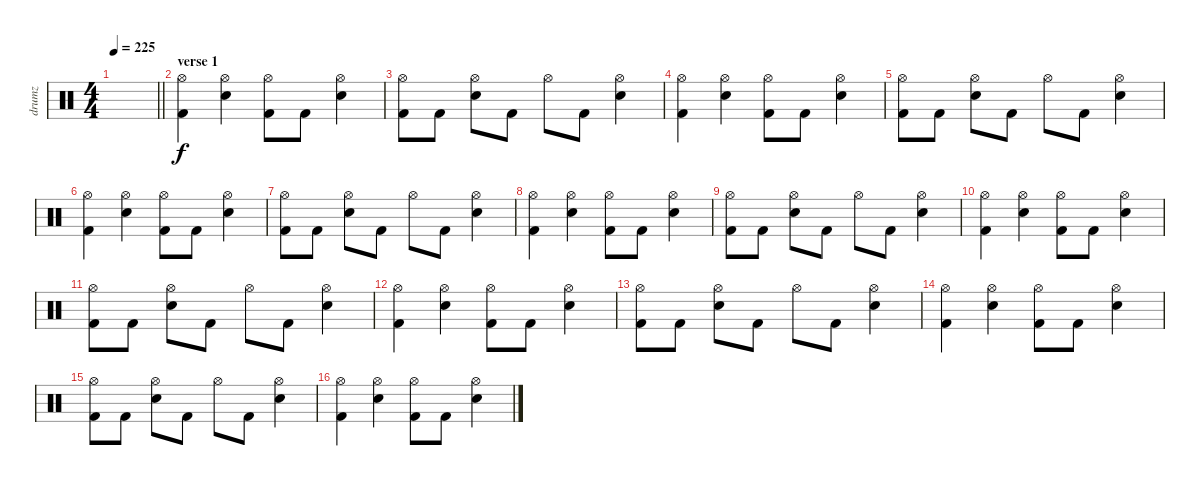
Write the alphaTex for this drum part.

\track ("drumz" "drumz") {instrument percussion}
\staff {score}
\articulation defaults
\ts (4 4)
\tempo 225
\clef neutral
\barLineRight lightlight
\ks c
|
\section ("" "verse 1")
("Hi-Hat (open)" "Kick (hit) 2").4 ("Hi-Hat (open)" "Electric Snare (hit)").4 ("Hi-Hat (open)" "Kick (hit) 2").8 "Kick (hit) 2".8 ("Hi-Hat (open)" "Electric Snare (hit)").4 |
("Hi-Hat (open)" "Kick (hit) 2").8 "Kick (hit) 2".8 ("Hi-Hat (open)" "Electric Snare (hit)").8 "Kick (hit) 2".8 "Hi-Hat (open)".8 "Kick (hit) 2".8 ("Hi-Hat (open)" "Electric Snare (hit)").4 |
("Hi-Hat (open)" "Kick (hit) 2").4 ("Hi-Hat (open)" "Electric Snare (hit)").4 ("Hi-Hat (open)" "Kick (hit) 2").8 "Kick (hit) 2".8 ("Hi-Hat (open)" "Electric Snare (hit)").4 |
("Hi-Hat (open)" "Kick (hit) 2").8 "Kick (hit) 2".8 ("Hi-Hat (open)" "Electric Snare (hit)").8 "Kick (hit) 2".8 "Hi-Hat (open)".8 "Kick (hit) 2".8 ("Hi-Hat (open)" "Electric Snare (hit)").4 |
("Hi-Hat (open)" "Kick (hit) 2").4 ("Hi-Hat (open)" "Electric Snare (hit)").4 ("Hi-Hat (open)" "Kick (hit) 2").8 "Kick (hit) 2".8 ("Hi-Hat (open)" "Electric Snare (hit)").4 |
("Hi-Hat (open)" "Kick (hit) 2").8 "Kick (hit) 2".8 ("Hi-Hat (open)" "Electric Snare (hit)").8 "Kick (hit) 2".8 "Hi-Hat (open)".8 "Kick (hit) 2".8 ("Hi-Hat (open)" "Electric Snare (hit)").4 |
("Hi-Hat (open)" "Kick (hit) 2").4 ("Hi-Hat (open)" "Electric Snare (hit)").4 ("Hi-Hat (open)" "Kick (hit) 2").8 "Kick (hit) 2".8 ("Hi-Hat (open)" "Electric Snare (hit)").4 |
("Hi-Hat (open)" "Kick (hit) 2").8 "Kick (hit) 2".8 ("Hi-Hat (open)" "Electric Snare (hit)").8 "Kick (hit) 2".8 "Hi-Hat (open)".8 "Kick (hit) 2".8 ("Hi-Hat (open)" "Electric Snare (hit)").4 |
("Hi-Hat (open)" "Kick (hit) 2").4 ("Hi-Hat (open)" "Electric Snare (hit)").4 ("Hi-Hat (open)" "Kick (hit) 2").8 "Kick (hit) 2".8 ("Hi-Hat (open)" "Electric Snare (hit)").4 |
("Hi-Hat (open)" "Kick (hit) 2").8 "Kick (hit) 2".8 ("Hi-Hat (open)" "Electric Snare (hit)").8 "Kick (hit) 2".8 "Hi-Hat (open)".8 "Kick (hit) 2".8 ("Hi-Hat (open)" "Electric Snare (hit)").4 |
("Hi-Hat (open)" "Kick (hit) 2").4 ("Hi-Hat (open)" "Electric Snare (hit)").4 ("Hi-Hat (open)" "Kick (hit) 2").8 "Kick (hit) 2".8 ("Hi-Hat (open)" "Electric Snare (hit)").4 |
("Hi-Hat (open)" "Kick (hit) 2").8 "Kick (hit) 2".8 ("Hi-Hat (open)" "Electric Snare (hit)").8 "Kick (hit) 2".8 "Hi-Hat (open)".8 "Kick (hit) 2".8 ("Hi-Hat (open)" "Electric Snare (hit)").4 |
("Hi-Hat (open)" "Kick (hit) 2").4 ("Hi-Hat (open)" "Electric Snare (hit)").4 ("Hi-Hat (open)" "Kick (hit) 2").8 "Kick (hit) 2".8 ("Hi-Hat (open)" "Electric Snare (hit)").4 |
("Hi-Hat (open)" "Kick (hit) 2").8 "Kick (hit) 2".8 ("Hi-Hat (open)" "Electric Snare (hit)").8 "Kick (hit) 2".8 "Hi-Hat (open)".8 "Kick (hit) 2".8 ("Hi-Hat (open)" "Electric Snare (hit)").4 |
("Hi-Hat (open)" "Kick (hit) 2").4 ("Hi-Hat (open)" "Electric Snare (hit)").4 ("Hi-Hat (open)" "Kick (hit) 2").8 "Kick (hit) 2".8 ("Hi-Hat (open)" "Electric Snare (hit)").4
